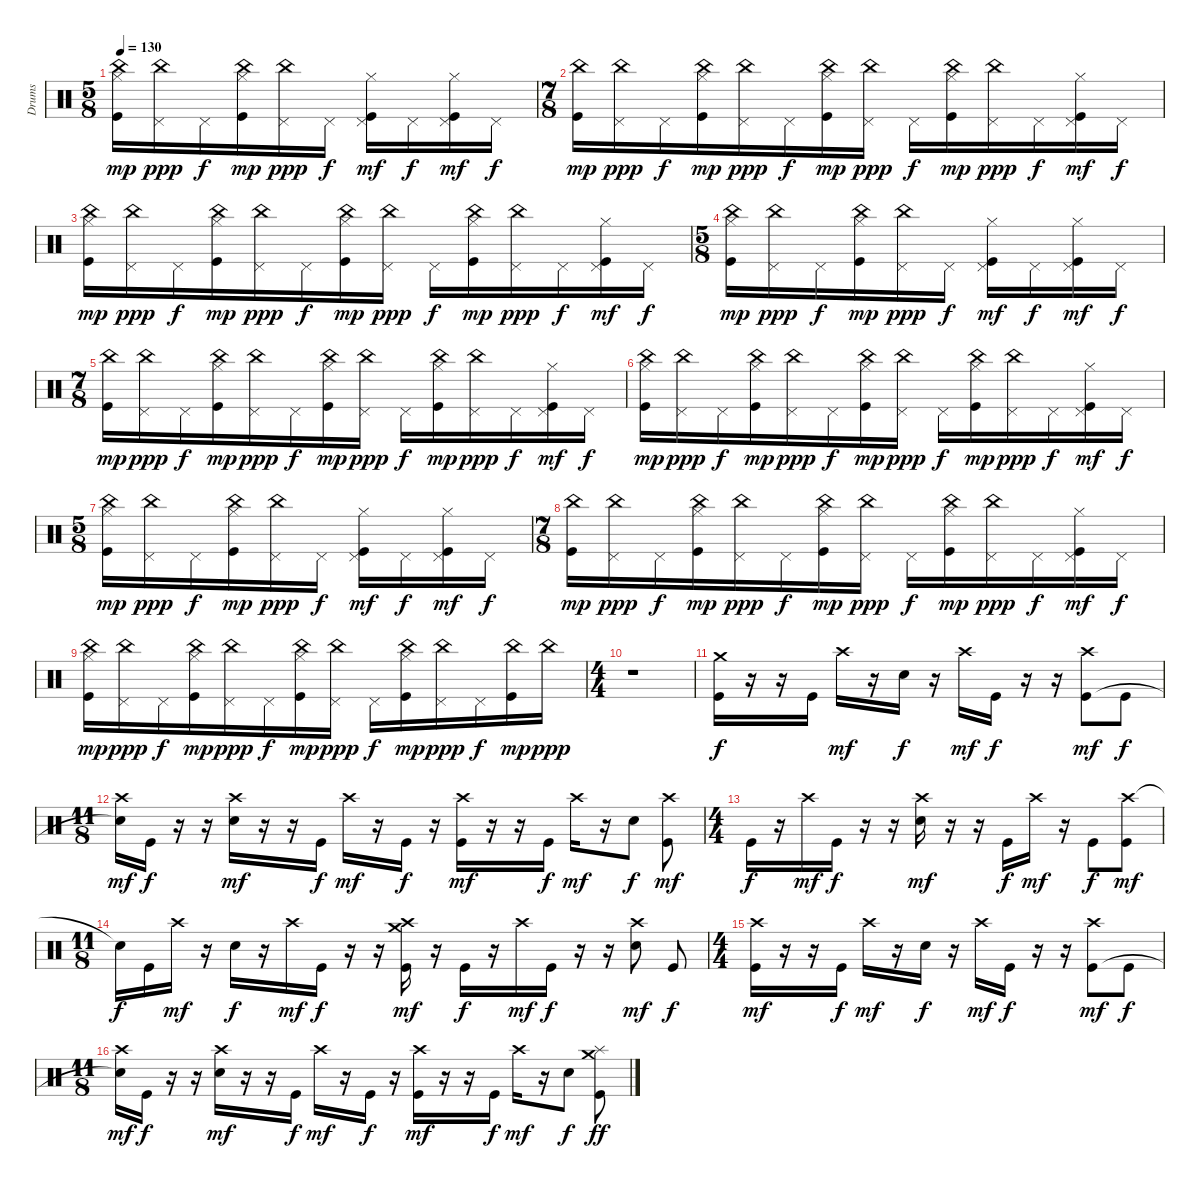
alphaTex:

\track ("Drums" "Drums") {instrument percussion}
\staff {score}
\articulation defaults
\ts (5 8)
\tempo 130
\clef neutral
\ks c
("Hi-Hat (closed)" "China (hit)" "Kick (hit)").16{dy mp} ("China (hit)" "Pedal Hi-Hat (hit)").16{dy ppp} "Pedal Hi-Hat (hit)".16{dy f} ("Hi-Hat (closed)" "China (hit)" "Kick (hit)").16{dy mp} ("China (hit)" "Pedal Hi-Hat (hit)").16{dy ppp} "Pedal Hi-Hat (hit)".16{dy f} ("Hi-Hat (closed)" "Pedal Hi-Hat (hit)" "Kick (hit)").16{dy mf} "Pedal Hi-Hat (hit)".16{dy f} ("Hi-Hat (closed)" "Pedal Hi-Hat (hit)" "Kick (hit)").16{dy mf} "Pedal Hi-Hat (hit)".16{dy f} |
\ts (7 8)
("China (hit)" "Kick (hit)").16{dy mp} ("China (hit)" "Pedal Hi-Hat (hit)").16{dy ppp} "Pedal Hi-Hat (hit)".16{dy f} ("Hi-Hat (closed)" "China (hit)" "Kick (hit)").16{dy mp} ("China (hit)" "Pedal Hi-Hat (hit)").16{dy ppp} "Pedal Hi-Hat (hit)".16{dy f} ("Hi-Hat (closed)" "China (hit)" "Kick (hit)").16{dy mp} ("China (hit)" "Pedal Hi-Hat (hit)").16{dy ppp} "Pedal Hi-Hat (hit)".16{dy f} ("Hi-Hat (closed)" "China (hit)" "Kick (hit)").16{dy mp} ("China (hit)" "Pedal Hi-Hat (hit)").16{dy ppp} "Pedal Hi-Hat (hit)".16{dy f} ("Hi-Hat (closed)" "Pedal Hi-Hat (hit)" "Kick (hit)").16{dy mf} "Pedal Hi-Hat (hit)".16{dy f} |
("Hi-Hat (closed)" "China (hit)" "Kick (hit)").16{dy mp} ("China (hit)" "Pedal Hi-Hat (hit)").16{dy ppp} "Pedal Hi-Hat (hit)".16{dy f} ("Hi-Hat (closed)" "China (hit)" "Kick (hit)").16{dy mp} ("China (hit)" "Pedal Hi-Hat (hit)").16{dy ppp} "Pedal Hi-Hat (hit)".16{dy f} ("Hi-Hat (closed)" "China (hit)" "Kick (hit)").16{dy mp} ("China (hit)" "Pedal Hi-Hat (hit)").16{dy ppp} "Pedal Hi-Hat (hit)".16{dy f} ("Hi-Hat (closed)" "China (hit)" "Kick (hit)").16{dy mp} ("China (hit)" "Pedal Hi-Hat (hit)").16{dy ppp} "Pedal Hi-Hat (hit)".16{dy f} ("Hi-Hat (closed)" "Pedal Hi-Hat (hit)" "Kick (hit)").16{dy mf} "Pedal Hi-Hat (hit)".16{dy f} |
\ts (5 8)
("Hi-Hat (closed)" "China (hit)" "Kick (hit)").16{dy mp} ("China (hit)" "Pedal Hi-Hat (hit)").16{dy ppp} "Pedal Hi-Hat (hit)".16{dy f} ("Hi-Hat (closed)" "China (hit)" "Kick (hit)").16{dy mp} ("China (hit)" "Pedal Hi-Hat (hit)").16{dy ppp} "Pedal Hi-Hat (hit)".16{dy f} ("Hi-Hat (closed)" "Pedal Hi-Hat (hit)" "Kick (hit)").16{dy mf} "Pedal Hi-Hat (hit)".16{dy f} ("Hi-Hat (closed)" "Pedal Hi-Hat (hit)" "Kick (hit)").16{dy mf} "Pedal Hi-Hat (hit)".16{dy f} |
\ts (7 8)
("China (hit)" "Kick (hit)").16{dy mp} ("China (hit)" "Pedal Hi-Hat (hit)").16{dy ppp} "Pedal Hi-Hat (hit)".16{dy f} ("Hi-Hat (closed)" "China (hit)" "Kick (hit)").16{dy mp} ("China (hit)" "Pedal Hi-Hat (hit)").16{dy ppp} "Pedal Hi-Hat (hit)".16{dy f} ("Hi-Hat (closed)" "China (hit)" "Kick (hit)").16{dy mp} ("China (hit)" "Pedal Hi-Hat (hit)").16{dy ppp} "Pedal Hi-Hat (hit)".16{dy f} ("Hi-Hat (closed)" "China (hit)" "Kick (hit)").16{dy mp} ("China (hit)" "Pedal Hi-Hat (hit)").16{dy ppp} "Pedal Hi-Hat (hit)".16{dy f} ("Hi-Hat (closed)" "Pedal Hi-Hat (hit)" "Kick (hit)").16{dy mf} "Pedal Hi-Hat (hit)".16{dy f} |
("Hi-Hat (closed)" "China (hit)" "Kick (hit)").16{dy mp} ("China (hit)" "Pedal Hi-Hat (hit)").16{dy ppp} "Pedal Hi-Hat (hit)".16{dy f} ("Hi-Hat (closed)" "China (hit)" "Kick (hit)").16{dy mp} ("China (hit)" "Pedal Hi-Hat (hit)").16{dy ppp} "Pedal Hi-Hat (hit)".16{dy f} ("Hi-Hat (closed)" "China (hit)" "Kick (hit)").16{dy mp} ("China (hit)" "Pedal Hi-Hat (hit)").16{dy ppp} "Pedal Hi-Hat (hit)".16{dy f} ("Hi-Hat (closed)" "China (hit)" "Kick (hit)").16{dy mp} ("China (hit)" "Pedal Hi-Hat (hit)").16{dy ppp} "Pedal Hi-Hat (hit)".16{dy f} ("Hi-Hat (closed)" "Pedal Hi-Hat (hit)" "Kick (hit)").16{dy mf} "Pedal Hi-Hat (hit)".16{dy f} |
\ts (5 8)
("Hi-Hat (closed)" "China (hit)" "Kick (hit)").16{dy mp} ("China (hit)" "Pedal Hi-Hat (hit)").16{dy ppp} "Pedal Hi-Hat (hit)".16{dy f} ("Hi-Hat (closed)" "China (hit)" "Kick (hit)").16{dy mp} ("China (hit)" "Pedal Hi-Hat (hit)").16{dy ppp} "Pedal Hi-Hat (hit)".16{dy f} ("Hi-Hat (closed)" "Pedal Hi-Hat (hit)" "Kick (hit)").16{dy mf} "Pedal Hi-Hat (hit)".16{dy f} ("Hi-Hat (closed)" "Pedal Hi-Hat (hit)" "Kick (hit)").16{dy mf} "Pedal Hi-Hat (hit)".16{dy f} |
\ts (7 8)
("China (hit)" "Kick (hit)").16{dy mp} ("China (hit)" "Pedal Hi-Hat (hit)").16{dy ppp} "Pedal Hi-Hat (hit)".16{dy f} ("Hi-Hat (closed)" "China (hit)" "Kick (hit)").16{dy mp} ("China (hit)" "Pedal Hi-Hat (hit)").16{dy ppp} "Pedal Hi-Hat (hit)".16{dy f} ("Hi-Hat (closed)" "China (hit)" "Kick (hit)").16{dy mp} ("China (hit)" "Pedal Hi-Hat (hit)").16{dy ppp} "Pedal Hi-Hat (hit)".16{dy f} ("Hi-Hat (closed)" "China (hit)" "Kick (hit)").16{dy mp} ("China (hit)" "Pedal Hi-Hat (hit)").16{dy ppp} "Pedal Hi-Hat (hit)".16{dy f} ("Hi-Hat (closed)" "Pedal Hi-Hat (hit)" "Kick (hit)").16{dy mf} "Pedal Hi-Hat (hit)".16{dy f} |
("Hi-Hat (closed)" "China (hit)" "Kick (hit)").16{dy mp} ("China (hit)" "Pedal Hi-Hat (hit)").16{dy ppp} "Pedal Hi-Hat (hit)".16{dy f} ("Hi-Hat (closed)" "China (hit)" "Kick (hit)").16{dy mp} ("China (hit)" "Pedal Hi-Hat (hit)").16{dy ppp} "Pedal Hi-Hat (hit)".16{dy f} ("Hi-Hat (closed)" "China (hit)" "Kick (hit)").16{dy mp} ("China (hit)" "Pedal Hi-Hat (hit)").16{dy ppp} "Pedal Hi-Hat (hit)".16{dy f} ("Hi-Hat (closed)" "China (hit)" "Kick (hit)").16{dy mp} ("China (hit)" "Pedal Hi-Hat (hit)").16{dy ppp} "Pedal Hi-Hat (hit)".16{dy f} ("China (hit)" "Kick (hit)").16{dy mp} "China (hit)".16{dy ppp} |
\ts (4 4)
r.1 |
("Crash medium (hit)" "Kick (hit)").16{dy f} r.16 r.16 "Kick (hit)".16 "Crash high (hit)".16{dy mf} r.16 "Electric Snare (hit)".16{dy f} r.16 "Crash high (hit)".16{dy mf} "Kick (hit)".16{dy f} r.16 r.16 ("Crash high (hit)" "Kick (hit)").8{dy mf} "Kick (hit)".8{dy f} |
\ts (11 8)
("Crash high (hit)" "Snare (hit)"{t}).16{dy mf} "Kick (hit)".16{dy f} r.16 r.16 ("Crash high (hit)" "Electric Snare (hit)").16{dy mf} r.16 r.16 "Kick (hit)".16{dy f} "Crash high (hit)".16{dy mf} r.16 "Kick (hit)".16{dy f} r.16 ("Crash high (hit)" "Kick (hit)").16{dy mf} r.16 r.16 "Kick (hit)".16{dy f} "Crash high (hit)".16{dy mf} r.16 "Electric Snare (hit)".8{dy f} ("Crash high (hit)" "Kick (hit)").8{dy mf} |
\ts (4 4)
"Kick (hit)".16{dy f} r.16 "Crash high (hit)".16{dy mf} "Kick (hit)".16{dy f} r.16 r.16 ("Crash high (hit)" "Electric Snare (hit)").16{dy mf} r.16 r.16 "Kick (hit)".16{dy f} "Crash high (hit)".16{dy mf} r.16 "Kick (hit)".8{dy f} ("Crash high (hit)" "Kick (hit)").8{dy mf} |
\ts (11 8)
"Snare (hit)"{t}.16{dy f} "Kick (hit)".16 "Crash high (hit)".16{dy mf} r.16 "Electric Snare (hit)".16{dy f} r.16 "Crash high (hit)".16{dy mf} "Kick (hit)".16{dy f} r.16 r.16 ("Crash high (hit)" "Crash medium (hit)" "Kick (hit)").16{dy mf} r.16 "Kick (hit)".16{dy f} r.16 "Crash high (hit)".16{dy mf} "Kick (hit)".16{dy f} r.16 r.16 ("Crash high (hit)" "Electric Snare (hit)").8{dy mf} "Kick (hit)".8{dy f} |
\ts (4 4)
("Crash high (hit)" "Kick (hit)").16{dy mf} r.16 r.16 "Kick (hit)".16{dy f} "Crash high (hit)".16{dy mf} r.16 "Electric Snare (hit)".16{dy f} r.16 "Crash high (hit)".16{dy mf} "Kick (hit)".16{dy f} r.16 r.16 ("Crash high (hit)" "Kick (hit)").8{dy mf} "Kick (hit)".8{dy f} |
\ts (11 8)
("Crash high (hit)" "Snare (hit)"{t}).16{dy mf} "Kick (hit)".16{dy f} r.16 r.16 ("Crash high (hit)" "Electric Snare (hit)").16{dy mf} r.16 r.16 "Kick (hit)".16{dy f} "Crash high (hit)".16{dy mf} r.16 "Kick (hit)".16{dy f} r.16 ("Crash high (hit)" "Kick (hit)").16{dy mf} r.16 r.16 "Kick (hit)".16{dy f} "Crash high (hit)".16{dy mf} r.16 "Electric Snare (hit)".8{dy f} ("Crash medium (hit)" "Splash (hit)" "Kick (hit)").8{dy ff}
